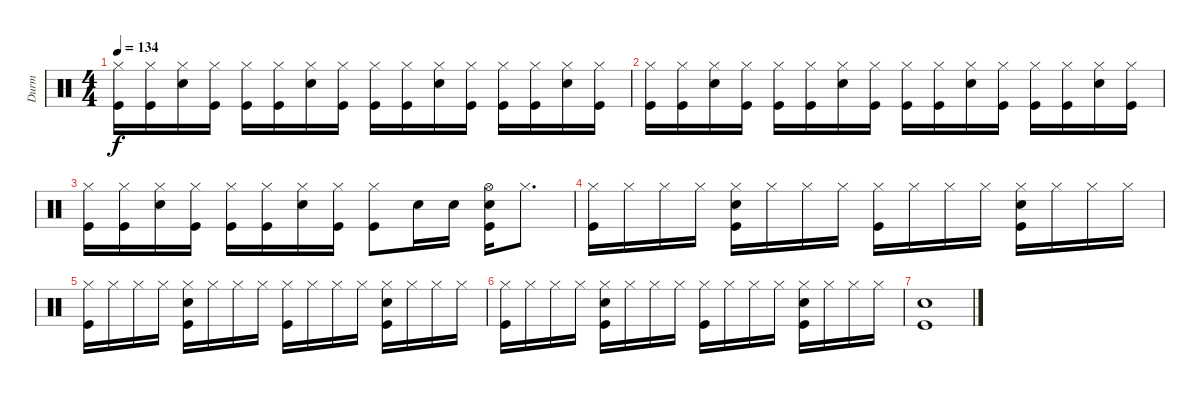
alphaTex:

\track ("Durm" "Durm") {instrument percussion}
\staff {score}
\articulation defaults
\ts (4 4)
\tempo 134
\clef neutral
\ks c
("Hi-Hat (closed)" "Kick (hit)").16{dy f} ("Hi-Hat (closed)" "Kick (hit)").16 ("Hi-Hat (closed)" "Electric Snare (hit)").16 ("Hi-Hat (closed)" "Kick (hit)").16 ("Hi-Hat (closed)" "Kick (hit)").16 ("Hi-Hat (closed)" "Kick (hit)").16 ("Hi-Hat (closed)" "Electric Snare (hit)").16 ("Hi-Hat (closed)" "Kick (hit)").16 ("Hi-Hat (closed)" "Kick (hit)").16 ("Hi-Hat (closed)" "Kick (hit)").16 ("Hi-Hat (closed)" "Electric Snare (hit)").16 ("Hi-Hat (closed)" "Kick (hit)").16 ("Hi-Hat (closed)" "Kick (hit)").16 ("Hi-Hat (closed)" "Kick (hit)").16 ("Hi-Hat (closed)" "Electric Snare (hit)").16 ("Hi-Hat (closed)" "Kick (hit)").16 |
("Hi-Hat (closed)" "Kick (hit)").16 ("Hi-Hat (closed)" "Kick (hit)").16 ("Hi-Hat (closed)" "Electric Snare (hit)").16 ("Hi-Hat (closed)" "Kick (hit)").16 ("Hi-Hat (closed)" "Kick (hit)").16 ("Hi-Hat (closed)" "Kick (hit)").16 ("Hi-Hat (closed)" "Electric Snare (hit)").16 ("Hi-Hat (closed)" "Kick (hit)").16 ("Hi-Hat (closed)" "Kick (hit)").16 ("Hi-Hat (closed)" "Kick (hit)").16 ("Hi-Hat (closed)" "Electric Snare (hit)").16 ("Hi-Hat (closed)" "Kick (hit)").16 ("Hi-Hat (closed)" "Kick (hit)").16 ("Hi-Hat (closed)" "Kick (hit)").16 ("Hi-Hat (closed)" "Electric Snare (hit)").16 ("Hi-Hat (closed)" "Kick (hit)").16 |
("Hi-Hat (closed)" "Kick (hit)").16 ("Hi-Hat (closed)" "Kick (hit)").16 ("Hi-Hat (closed)" "Electric Snare (hit)").16 ("Hi-Hat (closed)" "Kick (hit)").16 ("Hi-Hat (closed)" "Kick (hit)").16 ("Hi-Hat (closed)" "Kick (hit)").16 ("Hi-Hat (closed)" "Electric Snare (hit)").16 ("Hi-Hat (closed)" "Kick (hit)").16 ("Hi-Hat (closed)" "Kick (hit)").8 "Electric Snare (hit)".16 "Electric Snare (hit)".16 ("Hi-Hat (open)" "Electric Snare (hit)" "Kick (hit)").16 "Hi-Hat (closed)".8{d volume 0} |
("Hi-Hat (closed)" "Kick (hit)").16{volume 16} "Hi-Hat (closed)".16 "Hi-Hat (closed)".16 "Hi-Hat (closed)".16 ("Hi-Hat (closed)" "Electric Snare (hit)" "Kick (hit)").16 "Hi-Hat (closed)".16 "Hi-Hat (closed)".16 "Hi-Hat (closed)".16 ("Hi-Hat (closed)" "Kick (hit)").16 "Hi-Hat (closed)".16 "Hi-Hat (closed)".16 "Hi-Hat (closed)".16 ("Hi-Hat (closed)" "Electric Snare (hit)" "Kick (hit)").16 "Hi-Hat (closed)".16 "Hi-Hat (closed)".16 "Hi-Hat (closed)".16 |
("Hi-Hat (closed)" "Kick (hit)").16 "Hi-Hat (closed)".16 "Hi-Hat (closed)".16 "Hi-Hat (closed)".16 ("Hi-Hat (closed)" "Electric Snare (hit)" "Kick (hit)").16 "Hi-Hat (closed)".16 "Hi-Hat (closed)".16 "Hi-Hat (closed)".16 ("Hi-Hat (closed)" "Kick (hit)").16 "Hi-Hat (closed)".16 "Hi-Hat (closed)".16 "Hi-Hat (closed)".16 ("Hi-Hat (closed)" "Electric Snare (hit)" "Kick (hit)").16 "Hi-Hat (closed)".16 "Hi-Hat (closed)".16 "Hi-Hat (closed)".16 |
("Hi-Hat (closed)" "Kick (hit)").16 "Hi-Hat (closed)".16 "Hi-Hat (closed)".16 "Hi-Hat (closed)".16 ("Hi-Hat (closed)" "Electric Snare (hit)" "Kick (hit)").16 "Hi-Hat (closed)".16 "Hi-Hat (closed)".16 "Hi-Hat (closed)".16 ("Hi-Hat (closed)" "Kick (hit)").16 "Hi-Hat (closed)".16 "Hi-Hat (closed)".16 "Hi-Hat (closed)".16 ("Hi-Hat (closed)" "Electric Snare (hit)" "Kick (hit)").16 "Hi-Hat (closed)".16 "Hi-Hat (closed)".16 "Hi-Hat (closed)".16 |
("Kick (hit)" "Electric Snare (hit)").1
